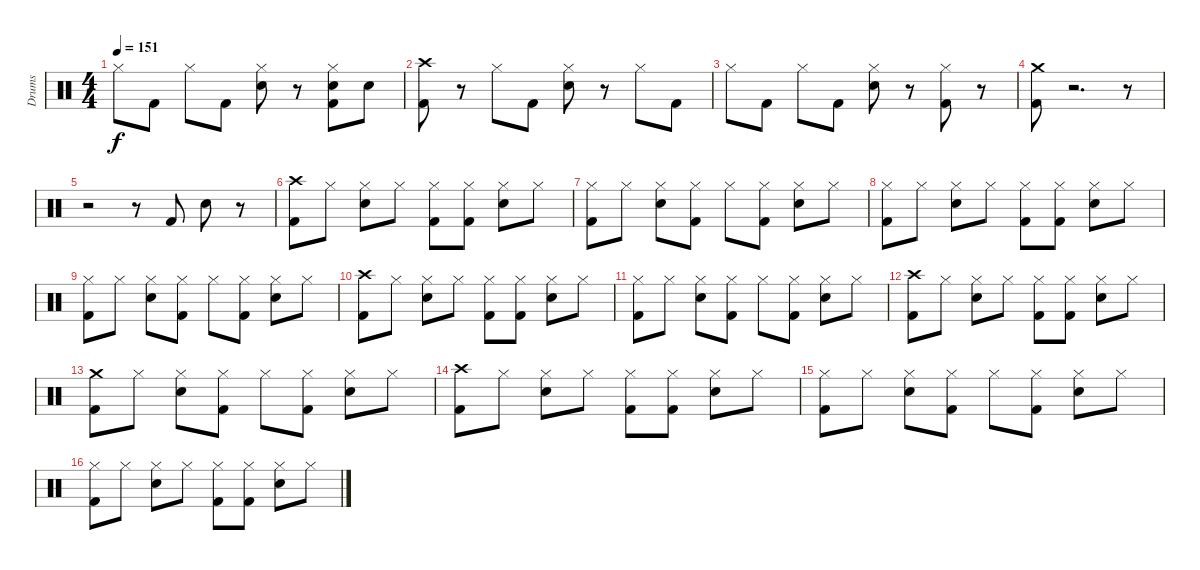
\track ("Drums" "Drums") {instrument percussion}
\staff {score}
\articulation defaults
\ts (4 4)
\tempo 151
\clef neutral
\ks c "Hi-Hat (closed)".8{dy f} "Kick (hit) 2".8 "Hi-Hat (closed)".8 "Kick (hit) 2".8
("Electric Snare (hit)" "Hi-Hat (closed)").8 r.8 ("Electric Snare (hit)" "Kick (hit) 2" "Hi-Hat (closed)").8 "Electric Snare (hit)".8 |
("Kick (hit) 2" "Crash high (hit)").8 r.8 "Hi-Hat (closed)".8 "Kick (hit) 2".8 ("Electric Snare (hit)" "Hi-Hat (closed)").8 r.8 "Hi-Hat (closed)".8 "Kick (hit) 2".8 |
"Hi-Hat (closed)".8 "Kick (hit) 2".8 "Hi-Hat (closed)".8 "Kick (hit) 2".8 ("Electric Snare (hit)" "Hi-Hat (closed)").8 r.8 ("Kick (hit) 2" "Hi-Hat (closed)").8 r.8 |
("Kick (hit) 2" "Crash medium (hit)").8 r.2{d} r.8 |
r.2 r.8 "Kick (hit) 2".8 "Electric Snare (hit)".8 r.8 |
("Crash high (hit)" "Kick (hit) 2").8 "Hi-Hat (closed)".8 ("Electric Snare (hit)" "Hi-Hat (closed)").8 "Hi-Hat (closed)".8 ("Kick (hit) 2" "Hi-Hat (closed)").8 ("Kick (hit) 2" "Hi-Hat (closed)").8 ("Electric Snare (hit)" "Hi-Hat (closed)").8 "Hi-Hat (closed)".8 |
("Kick (hit) 2" "Hi-Hat (closed)").8 "Hi-Hat (closed)".8 ("Electric Snare (hit)" "Hi-Hat (closed)").8 ("Kick (hit) 2" "Hi-Hat (closed)").8 "Hi-Hat (closed)".8 ("Kick (hit) 2" "Hi-Hat (closed)").8 ("Electric Snare (hit)" "Hi-Hat (closed)").8 "Hi-Hat (closed)".8 |
("Hi-Hat (closed)" "Kick (hit) 2").8 "Hi-Hat (closed)".8 ("Electric Snare (hit)" "Hi-Hat (closed)").8 "Hi-Hat (closed)".8 ("Kick (hit) 2" "Hi-Hat (closed)").8 ("Kick (hit) 2" "Hi-Hat (closed)").8 ("Electric Snare (hit)" "Hi-Hat (closed)").8 "Hi-Hat (closed)".8 |
("Kick (hit) 2" "Hi-Hat (closed)").8 "Hi-Hat (closed)".8 ("Electric Snare (hit)" "Hi-Hat (closed)").8 ("Kick (hit) 2" "Hi-Hat (closed)").8 "Hi-Hat (closed)".8 ("Kick (hit) 2" "Hi-Hat (closed)").8 ("Electric Snare (hit)" "Hi-Hat (closed)").8 "Hi-Hat (closed)".8 |
("Crash high (hit)" "Kick (hit) 2").8 "Hi-Hat (closed)".8 ("Electric Snare (hit)" "Hi-Hat (closed)").8 "Hi-Hat (closed)".8 ("Kick (hit) 2" "Hi-Hat (closed)").8 ("Kick (hit) 2" "Hi-Hat (closed)").8 ("Electric Snare (hit)" "Hi-Hat (closed)").8 "Hi-Hat (closed)".8 |
("Kick (hit) 2" "Hi-Hat (closed)").8 "Hi-Hat (closed)".8 ("Electric Snare (hit)" "Hi-Hat (closed)").8 ("Kick (hit) 2" "Hi-Hat (closed)").8 "Hi-Hat (closed)".8 ("Kick (hit) 2" "Hi-Hat (closed)").8 ("Electric Snare (hit)" "Hi-Hat (closed)").8 "Hi-Hat (closed)".8 |
("Crash high (hit)" "Kick (hit) 2").8 "Hi-Hat (closed)".8 ("Electric Snare (hit)" "Hi-Hat (closed)").8 "Hi-Hat (closed)".8 ("Kick (hit) 2" "Hi-Hat (closed)").8 ("Kick (hit) 2" "Hi-Hat (closed)").8 ("Electric Snare (hit)" "Hi-Hat (closed)").8 "Hi-Hat (closed)".8 |
("Kick (hit) 2" "Crash medium (hit)").8 "Hi-Hat (closed)".8 ("Electric Snare (hit)" "Hi-Hat (closed)").8 ("Kick (hit) 2" "Hi-Hat (closed)").8 "Hi-Hat (closed)".8 ("Kick (hit) 2" "Hi-Hat (closed)").8 ("Electric Snare (hit)" "Hi-Hat (closed)").8 "Hi-Hat (closed)".8 |
("Crash high (hit)" "Kick (hit) 2").8 "Hi-Hat (closed)".8 ("Electric Snare (hit)" "Hi-Hat (closed)").8 "Hi-Hat (closed)".8 ("Kick (hit) 2" "Hi-Hat (closed)").8 ("Kick (hit) 2" "Hi-Hat (closed)").8 ("Electric Snare (hit)" "Hi-Hat (closed)").8 "Hi-Hat (closed)".8 |
("Kick (hit) 2" "Hi-Hat (closed)").8 "Hi-Hat (closed)".8 ("Electric Snare (hit)" "Hi-Hat (closed)").8 ("Kick (hit) 2" "Hi-Hat (closed)").8 "Hi-Hat (closed)".8 ("Kick (hit) 2" "Hi-Hat (closed)").8 ("Electric Snare (hit)" "Hi-Hat (closed)").8 "Hi-Hat (closed)".8 |
("Hi-Hat (closed)" "Kick (hit) 2").8 "Hi-Hat (closed)".8 ("Electric Snare (hit)" "Hi-Hat (closed)").8 "Hi-Hat (closed)".8 ("Kick (hit) 2" "Hi-Hat (closed)").8 ("Kick (hit) 2" "Hi-Hat (closed)").8 ("Electric Snare (hit)" "Hi-Hat (closed)").8 "Hi-Hat (closed)".8
